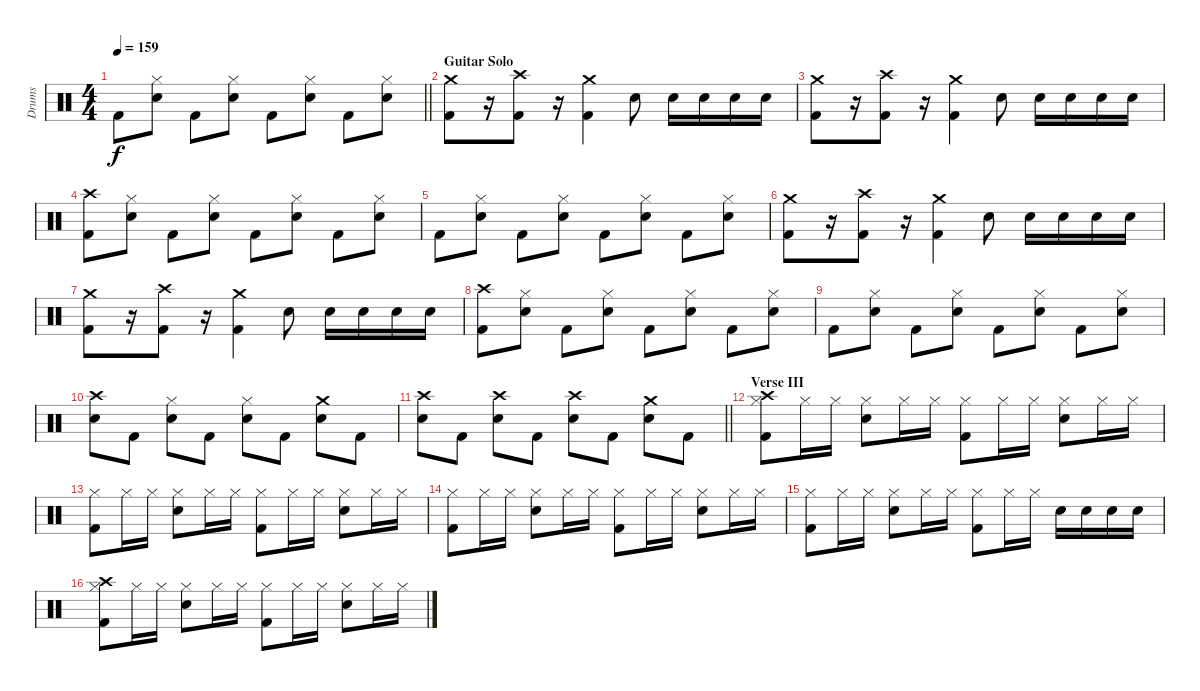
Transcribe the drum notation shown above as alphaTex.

\track ("Drums" "Drums") {instrument percussion}
\staff {score}
\articulation defaults
\ts (4 4)
\tempo 159
\clef neutral
\barLineRight lightlight
\ks c "Kick (hit) 2".8{dy f}
("Hi-Hat (closed)" "Snare (hit) 2").8 "Kick (hit) 2".8 ("Hi-Hat (closed)" "Snare (hit) 2").8 "Kick (hit) 2".8 ("Hi-Hat (closed)" "Snare (hit) 2").8 "Kick (hit) 2".8 ("Hi-Hat (closed)" "Snare (hit) 2").8 |
\section ("" "Guitar Solo")
("Crash medium (hit)" "Kick (hit) 2").8 r.16 ("Crash high (hit)" "Kick (hit) 2").8 r.16 ("Crash medium (hit)" "Kick (hit) 2").4 "Snare (hit) 2".8 "Snare (hit) 2".16 "Snare (hit) 2".16 "Snare (hit) 2".16 "Snare (hit) 2".16 |
("Crash medium (hit)" "Kick (hit) 2").8 r.16 ("Crash high (hit)" "Kick (hit) 2").8 r.16 ("Crash medium (hit)" "Kick (hit) 2").4 "Snare (hit) 2".8 "Snare (hit) 2".16 "Snare (hit) 2".16 "Snare (hit) 2".16 "Snare (hit) 2".16 |
("Crash high (hit)" "Kick (hit) 2").8 ("Hi-Hat (closed)" "Snare (hit) 2").8 "Kick (hit) 2".8 ("Hi-Hat (closed)" "Snare (hit) 2").8 "Kick (hit) 2".8 ("Hi-Hat (closed)" "Snare (hit) 2").8 "Kick (hit) 2".8 ("Hi-Hat (closed)" "Snare (hit) 2").8 |
"Kick (hit) 2".8 ("Hi-Hat (closed)" "Snare (hit) 2").8 "Kick (hit) 2".8 ("Hi-Hat (closed)" "Snare (hit) 2").8 "Kick (hit) 2".8 ("Hi-Hat (closed)" "Snare (hit) 2").8 "Kick (hit) 2".8 ("Hi-Hat (closed)" "Snare (hit) 2").8 |
("Crash medium (hit)" "Kick (hit) 2").8 r.16 ("Crash high (hit)" "Kick (hit) 2").8 r.16 ("Crash medium (hit)" "Kick (hit) 2").4 "Snare (hit) 2".8 "Snare (hit) 2".16 "Snare (hit) 2".16 "Snare (hit) 2".16 "Snare (hit) 2".16 |
("Crash medium (hit)" "Kick (hit) 2").8 r.16 ("Crash high (hit)" "Kick (hit) 2").8 r.16 ("Crash medium (hit)" "Kick (hit) 2").4 "Snare (hit) 2".8 "Snare (hit) 2".16 "Snare (hit) 2".16 "Snare (hit) 2".16 "Snare (hit) 2".16 |
("Crash high (hit)" "Kick (hit) 2").8 ("Hi-Hat (closed)" "Snare (hit) 2").8 "Kick (hit) 2".8 ("Hi-Hat (closed)" "Snare (hit) 2").8 "Kick (hit) 2".8 ("Hi-Hat (closed)" "Snare (hit) 2").8 "Kick (hit) 2".8 ("Hi-Hat (closed)" "Snare (hit) 2").8 |
"Kick (hit) 2".8 ("Hi-Hat (closed)" "Snare (hit) 2").8 "Kick (hit) 2".8 ("Hi-Hat (closed)" "Snare (hit) 2").8 "Kick (hit) 2".8 ("Hi-Hat (closed)" "Snare (hit) 2").8 "Kick (hit) 2".8 ("Hi-Hat (closed)" "Snare (hit) 2").8 |
("Crash high (hit)" "Snare (hit) 2").8 "Kick (hit) 2".8 ("Hi-Hat (closed)" "Snare (hit) 2").8 "Kick (hit) 2".8 ("Hi-Hat (closed)" "Snare (hit) 2").8 "Kick (hit) 2".8 ("Crash medium (hit)" "Snare (hit) 2").8 "Kick (hit) 2".8 |
\barLineRight lightlight
("Crash high (hit)" "Snare (hit) 2").8 "Kick (hit) 2".8 ("Crash high (hit)" "Snare (hit) 2").8 "Kick (hit) 2".8 ("Crash high (hit)" "Snare (hit) 2").8 "Kick (hit) 2".8 ("Crash medium (hit)" "Snare (hit) 2").8 "Kick (hit) 2".8 |
\section ("" "Verse III")
("Crash high (hit)" "Hi-Hat (closed)" "Kick (hit) 2").8 "Hi-Hat (closed)".16 "Hi-Hat (closed)".16 ("Hi-Hat (closed)" "Snare (hit) 2").8 "Hi-Hat (closed)".16 "Hi-Hat (closed)".16 ("Hi-Hat (closed)" "Kick (hit) 2").8 "Hi-Hat (closed)".16 "Hi-Hat (closed)".16 ("Hi-Hat (closed)" "Snare (hit) 2").8 "Hi-Hat (closed)".16 "Hi-Hat (closed)".16 |
("Hi-Hat (closed)" "Kick (hit) 2").8 "Hi-Hat (closed)".16 "Hi-Hat (closed)".16 ("Hi-Hat (closed)" "Snare (hit) 2").8 "Hi-Hat (closed)".16 "Hi-Hat (closed)".16 ("Hi-Hat (closed)" "Kick (hit) 2").8 "Hi-Hat (closed)".16 "Hi-Hat (closed)".16 ("Hi-Hat (closed)" "Snare (hit) 2").8 "Hi-Hat (closed)".16 "Hi-Hat (closed)".16 |
("Hi-Hat (closed)" "Kick (hit) 2").8 "Hi-Hat (closed)".16 "Hi-Hat (closed)".16 ("Hi-Hat (closed)" "Snare (hit) 2").8 "Hi-Hat (closed)".16 "Hi-Hat (closed)".16 ("Hi-Hat (closed)" "Kick (hit) 2").8 "Hi-Hat (closed)".16 "Hi-Hat (closed)".16 ("Hi-Hat (closed)" "Snare (hit) 2").8 "Hi-Hat (closed)".16 "Hi-Hat (closed)".16 |
("Hi-Hat (closed)" "Kick (hit) 2").8 "Hi-Hat (closed)".16 "Hi-Hat (closed)".16 ("Hi-Hat (closed)" "Snare (hit) 2").8 "Hi-Hat (closed)".16 "Hi-Hat (closed)".16 ("Hi-Hat (closed)" "Kick (hit) 2").8 "Hi-Hat (closed)".16 "Hi-Hat (closed)".16 "Snare (hit) 2".16 "Snare (hit) 2".16 "Snare (hit) 2".16 "Snare (hit) 2".16 |
("Crash high (hit)" "Hi-Hat (closed)" "Kick (hit) 2").8 "Hi-Hat (closed)".16 "Hi-Hat (closed)".16 ("Hi-Hat (closed)" "Snare (hit) 2").8 "Hi-Hat (closed)".16 "Hi-Hat (closed)".16 ("Hi-Hat (closed)" "Kick (hit) 2").8 "Hi-Hat (closed)".16 "Hi-Hat (closed)".16 ("Hi-Hat (closed)" "Snare (hit) 2").8 "Hi-Hat (closed)".16 "Hi-Hat (closed)".16
